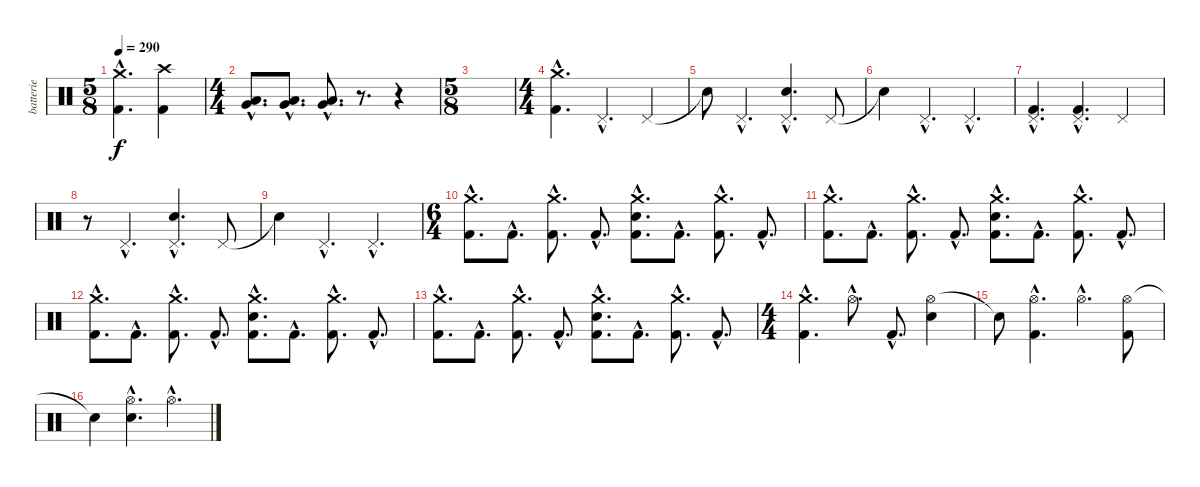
\track ("batterie" "batterie") {instrument percussion}
\staff {score}
\articulation defaults
\ts (5 8)
\tempo 290
\clef neutral
\ks c
("Crash medium (hit)"{hac} "Kick (hit) 2"{hac}).4{d dy f} ("Crash high (hit)" "Kick (hit) 2").4 |
\ts (4 4)
("Low Tom (hit)"{hac} "Very Low Tom (hit)"{hac}).8{d} ("Low Tom (hit)"{hac} "Very Low Tom (hit)"{hac}).8{d} ("Low Tom (hit)"{hac} "Very Low Tom (hit)"{hac}).8{d} r.8{d} r.4 |
\ts (5 8)
|
\ts (4 4)
("Crash medium (hit)"{hac} "Kick (hit) 2"{hac}).4{d} "Pedal Hi-Hat (hit)"{hac}.4{d} "Pedal Hi-Hat (hit)".4 |
"Snare (hit)"{t}.8 "Pedal Hi-Hat (hit)"{hac}.4{d} ("Pedal Hi-Hat (hit)"{hac} "Electric Snare (hit)"{hac}).4{d} "Pedal Hi-Hat (hit)".8 |
"Snare (hit)"{t}.4 "Pedal Hi-Hat (hit)"{hac}.4{d} "Pedal Hi-Hat (hit)"{hac}.4{d} |
("Pedal Hi-Hat (hit)"{hac} "Kick (hit) 2"{hac}).4{d} ("Pedal Hi-Hat (hit)"{hac} "Kick (hit) 2"{hac}).4{d} "Pedal Hi-Hat (hit)".4 |
r.8 "Pedal Hi-Hat (hit)"{hac}.4{d} ("Pedal Hi-Hat (hit)"{hac} "Electric Snare (hit)"{hac}).4{d} "Pedal Hi-Hat (hit)".8 |
"Snare (hit)"{t}.4 "Pedal Hi-Hat (hit)"{hac}.4{d} "Pedal Hi-Hat (hit)"{hac}.4{d} |
\ts (6 4)
("Crash medium (hit)"{hac} "Kick (hit) 2"{hac}).8{d} "Kick (hit) 2"{hac}.8{d} ("Crash medium (hit)"{hac} "Kick (hit) 2"{hac}).8{d} "Kick (hit) 2"{hac}.8{d} ("Crash medium (hit)"{hac} "Electric Snare (hit)"{hac} "Kick (hit) 2"{hac}).8{d} "Kick (hit) 2"{hac}.8{d} ("Crash medium (hit)"{hac} "Kick (hit) 2"{hac}).8{d} "Kick (hit) 2"{hac}.8{d} |
("Crash medium (hit)"{hac} "Kick (hit) 2"{hac}).8{d} "Kick (hit) 2"{hac}.8{d} ("Crash medium (hit)"{hac} "Kick (hit) 2"{hac}).8{d} "Kick (hit) 2"{hac}.8{d} ("Crash medium (hit)"{hac} "Electric Snare (hit)"{hac} "Kick (hit) 2"{hac}).8{d} "Kick (hit) 2"{hac}.8{d} ("Crash medium (hit)"{hac} "Kick (hit) 2"{hac}).8{d} "Kick (hit) 2"{hac}.8{d} |
("Crash medium (hit)"{hac} "Kick (hit) 2"{hac}).8{d} "Kick (hit) 2"{hac}.8{d} ("Crash medium (hit)"{hac} "Kick (hit) 2"{hac}).8{d} "Kick (hit) 2"{hac}.8{d} ("Crash medium (hit)"{hac} "Electric Snare (hit)"{hac} "Kick (hit) 2"{hac}).8{d} "Kick (hit) 2"{hac}.8{d} ("Crash medium (hit)"{hac} "Kick (hit) 2"{hac}).8{d} "Kick (hit) 2"{hac}.8{d} |
("Crash medium (hit)"{hac} "Kick (hit) 2"{hac}).8{d} "Kick (hit) 2"{hac}.8{d} ("Crash medium (hit)"{hac} "Kick (hit) 2"{hac}).8{d} "Kick (hit) 2"{hac}.8{d} ("Crash medium (hit)"{hac} "Electric Snare (hit)"{hac} "Kick (hit) 2"{hac}).8{d} "Kick (hit) 2"{hac}.8{d} ("Crash medium (hit)"{hac} "Kick (hit) 2"{hac}).8{d} "Kick (hit) 2"{hac}.8{d} |
\ts (4 4)
("Crash medium (hit)"{hac} "Kick (hit) 2"{hac}).4{d} "Hi-Hat (open)"{hac}.8{d} "Kick (hit) 2"{hac}.8{d} ("Hi-Hat (open)" "Electric Snare (hit)").4 |
"Snare (hit)"{t}.8 ("Hi-Hat (open)"{hac} "Kick (hit) 2"{hac}).4{d} "Hi-Hat (open)"{hac}.4{d} ("Hi-Hat (open)" "Kick (hit) 2").8 |
"Snare (hit)"{t}.4 ("Hi-Hat (open)"{hac} "Electric Snare (hit)"{hac}).4{d} "Hi-Hat (open)"{hac}.4{d}
